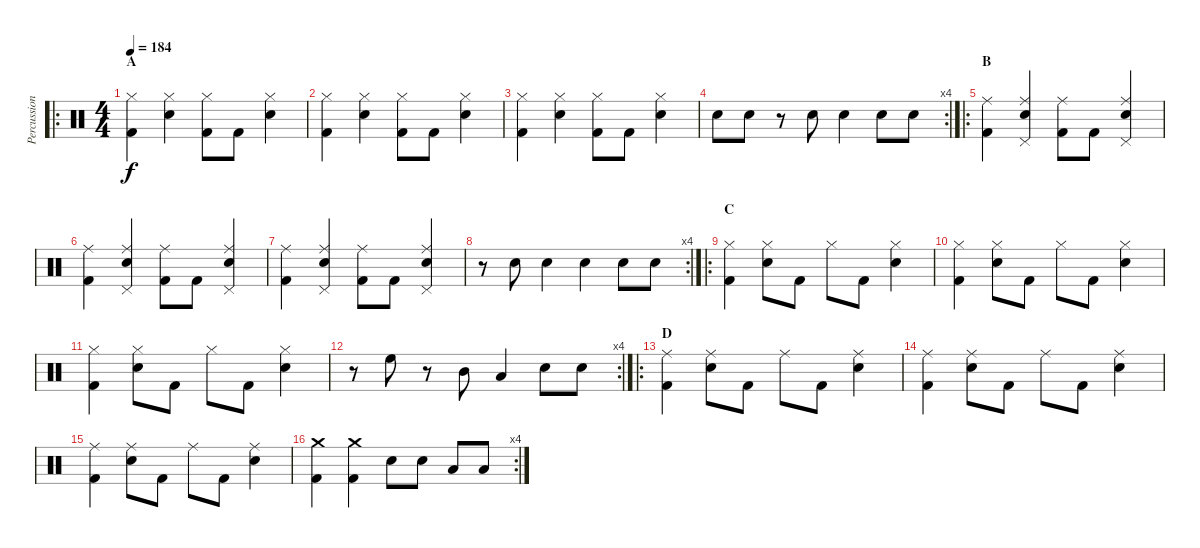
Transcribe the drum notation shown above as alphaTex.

\track ("Percussioni" "Percussion") {instrument percussion}
\staff {score}
\articulation defaults
\ro
\ts (4 4)
\section ("" "A")
\tempo 184
\clef neutral
\ks c
("Hi-Hat (closed)" "Kick (hit) 2").4{dy f} ("Hi-Hat (closed)" "Snare (hit) 2").4 ("Hi-Hat (closed)" "Kick (hit) 2").8 "Kick (hit) 2".8 ("Hi-Hat (closed)" "Snare (hit) 2").4 |
("Hi-Hat (closed)" "Kick (hit) 2").4 ("Hi-Hat (closed)" "Snare (hit) 2").4 ("Hi-Hat (closed)" "Kick (hit) 2").8 "Kick (hit) 2".8 ("Hi-Hat (closed)" "Snare (hit) 2").4 |
("Hi-Hat (closed)" "Kick (hit) 2").4 ("Hi-Hat (closed)" "Snare (hit) 2").4 ("Hi-Hat (closed)" "Kick (hit) 2").8 "Kick (hit) 2".8 ("Hi-Hat (closed)" "Snare (hit) 2").4 |
\rc 4 "Snare (hit) 2".8 "Snare (hit) 2".8
r.8 "Snare (hit) 2".8 "Snare (hit) 2".4 "Snare (hit) 2".8 "Snare (hit) 2".8 |
\ro
\section ("" "B")
("Ride (middle)" "Kick (hit) 2").4 ("Ride (middle)" "Pedal Hi-Hat (hit)" "Snare (hit) 2").4 ("Ride (middle)" "Kick (hit) 2").8 "Kick (hit) 2".8 ("Ride (middle)" "Pedal Hi-Hat (hit)" "Snare (hit) 2").4 |
("Ride (middle)" "Kick (hit) 2").4 ("Ride (middle)" "Pedal Hi-Hat (hit)" "Snare (hit) 2").4 ("Ride (middle)" "Kick (hit) 2").8 "Kick (hit) 2".8 ("Ride (middle)" "Pedal Hi-Hat (hit)" "Snare (hit) 2").4 |
("Ride (middle)" "Kick (hit) 2").4 ("Ride (middle)" "Pedal Hi-Hat (hit)" "Snare (hit) 2").4 ("Ride (middle)" "Kick (hit) 2").8 "Kick (hit) 2".8 ("Ride (middle)" "Pedal Hi-Hat (hit)" "Snare (hit) 2").4 |
\rc 4
r.8 "Snare (hit) 2".8 "Snare (hit) 2".4 "Snare (hit) 2".4 "Snare (hit) 2".8 "Snare (hit) 2".8 |
\ro
\section ("" "C")
("Hi-Hat (closed)" "Kick (hit) 2").4 ("Hi-Hat (closed)" "Snare (hit) 2").8 "Kick (hit) 2".8 "Hi-Hat (closed)".8 "Kick (hit) 2".8 ("Hi-Hat (closed)" "Snare (hit) 2").4 |
("Hi-Hat (closed)" "Kick (hit) 2").4 ("Hi-Hat (closed)" "Snare (hit) 2").8 "Kick (hit) 2".8 "Hi-Hat (closed)".8 "Kick (hit) 2".8 ("Hi-Hat (closed)" "Snare (hit) 2").4 |
("Hi-Hat (closed)" "Kick (hit) 2").4 ("Hi-Hat (closed)" "Snare (hit) 2").8 "Kick (hit) 2".8 "Hi-Hat (closed)".8 "Kick (hit) 2".8 ("Hi-Hat (closed)" "Snare (hit) 2").4 |
\rc 4
r.8 "High Floor Tom (hit)".8 r.8 "Mid Tom (hit)".8 "Low Floor Tom (hit)".4 "Snare (hit) 2".8 "Snare (hit) 2".8 |
\ro
\section ("" "D")
("Ride (middle)" "Kick (hit) 2").4 ("Ride (middle)" "Snare (hit) 2").8 "Kick (hit) 2".8 "Ride (middle)".8 "Kick (hit) 2".8 ("Ride (middle)" "Snare (hit) 2").4 |
("Ride (middle)" "Kick (hit) 2").4 ("Ride (middle)" "Snare (hit) 2").8 "Kick (hit) 2".8 "Ride (middle)".8 "Kick (hit) 2".8 ("Ride (middle)" "Snare (hit) 2").4 |
("Ride (middle)" "Kick (hit) 2").4 ("Ride (middle)" "Snare (hit) 2").8 "Kick (hit) 2".8 "Ride (middle)".8 "Kick (hit) 2".8 ("Ride (middle)" "Snare (hit) 2").4 |
\rc 4
("Kick (hit) 2" "Crash medium (hit)").4 ("Kick (hit) 2" "Crash medium (hit)").4 "Snare (hit) 2".8 "Snare (hit) 2".8 "Low Floor Tom (hit)".8 "Low Floor Tom (hit)".8
